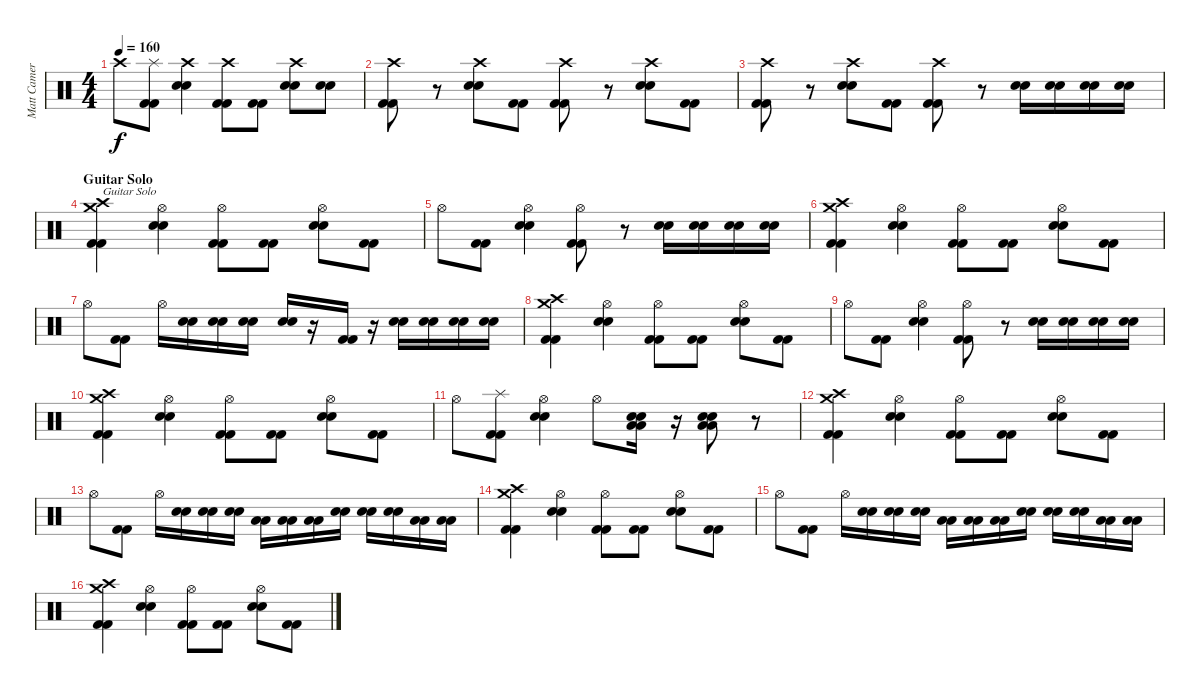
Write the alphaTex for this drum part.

\track ("Matt Cameron" "Matt Camer") {instrument percussion}
\staff {score}
\articulation defaults
\ts (4 4)
\tempo 160
\clef neutral
\ks c "Crash high (hit)".8{dy f}
("Kick (hit) 2" "Kick (hit) 2" "Splash (hit)").8 ("Electric Snare (hit)" "Electric Snare (hit)" "Crash high (hit)").4 ("Kick (hit) 2" "Kick (hit) 2" "Crash high (hit)").8 ("Kick (hit) 2" "Kick (hit) 2").8 ("Electric Snare (hit)" "Electric Snare (hit)" "Crash high (hit)").8 ("Electric Snare (hit)" "Electric Snare (hit)").8 |
("Kick (hit) 2" "Kick (hit) 2" "Crash high (hit)").8 r.8 ("Electric Snare (hit)" "Electric Snare (hit)" "Crash high (hit)").8 ("Kick (hit) 2" "Kick (hit) 2").8 ("Kick (hit) 2" "Kick (hit) 2" "Crash high (hit)").8 r.8 ("Electric Snare (hit)" "Electric Snare (hit)" "Crash high (hit)").8 ("Kick (hit) 2" "Kick (hit) 2").8 |
("Kick (hit) 2" "Kick (hit) 2" "Crash high (hit)").8 r.8 ("Electric Snare (hit)" "Electric Snare (hit)" "Crash high (hit)").8 ("Kick (hit) 2" "Kick (hit) 2").8 ("Kick (hit) 2" "Kick (hit) 2" "Crash high (hit)").8 r.8 ("Electric Snare (hit)" "Electric Snare (hit)").16 ("Electric Snare (hit)" "Electric Snare (hit)").16 ("Electric Snare (hit)" "Electric Snare (hit)").16 ("Electric Snare (hit)" "Electric Snare (hit)").16 |
\section ("" "Guitar Solo")
("Crash medium (hit)" "Kick (hit) 2" "Kick (hit) 2" "Crash high (hit)").4{txt "Guitar Solo"} ("Electric Snare (hit)" "Electric Snare (hit)" "Hi-Hat (open)").4 ("Kick (hit) 2" "Kick (hit) 2" "Hi-Hat (open)").8 ("Kick (hit) 2" "Kick (hit) 2").8 ("Electric Snare (hit)" "Electric Snare (hit)" "Hi-Hat (open)").8 ("Kick (hit) 2" "Kick (hit) 2").8 |
"Hi-Hat (open)".8 ("Kick (hit) 2" "Kick (hit) 2").8 ("Electric Snare (hit)" "Electric Snare (hit)" "Hi-Hat (open)").4 ("Kick (hit) 2" "Kick (hit) 2" "Hi-Hat (open)").8 r.8 ("Electric Snare (hit)" "Electric Snare (hit)").16 ("Electric Snare (hit)" "Electric Snare (hit)").16 ("Electric Snare (hit)" "Electric Snare (hit)").16 ("Electric Snare (hit)" "Electric Snare (hit)").16 |
("Crash medium (hit)" "Kick (hit) 2" "Kick (hit) 2" "Crash high (hit)").4 ("Electric Snare (hit)" "Electric Snare (hit)" "Hi-Hat (open)").4 ("Kick (hit) 2" "Kick (hit) 2" "Hi-Hat (open)").8 ("Kick (hit) 2" "Kick (hit) 2").8 ("Electric Snare (hit)" "Electric Snare (hit)" "Hi-Hat (open)").8 ("Kick (hit) 2" "Kick (hit) 2").8 |
"Hi-Hat (open)".8 ("Kick (hit) 2" "Kick (hit) 2").8 "Hi-Hat (open)".16 ("Electric Snare (hit)" "Electric Snare (hit)").16 ("Electric Snare (hit)" "Electric Snare (hit)").16 ("Electric Snare (hit)" "Electric Snare (hit)").16 ("Electric Snare (hit)" "Electric Snare (hit)").16 r.16 ("Kick (hit) 2" "Kick (hit) 2").16 r.16 ("Electric Snare (hit)" "Electric Snare (hit)").16 ("Electric Snare (hit)" "Electric Snare (hit)").16 ("Electric Snare (hit)" "Electric Snare (hit)").16 ("Electric Snare (hit)" "Electric Snare (hit)").16 |
("Crash medium (hit)" "Kick (hit) 2" "Kick (hit) 2" "Crash high (hit)").4 ("Electric Snare (hit)" "Electric Snare (hit)" "Hi-Hat (open)").4 ("Kick (hit) 2" "Kick (hit) 2" "Hi-Hat (open)").8 ("Kick (hit) 2" "Kick (hit) 2").8 ("Electric Snare (hit)" "Electric Snare (hit)" "Hi-Hat (open)").8 ("Kick (hit) 2" "Kick (hit) 2").8 |
"Hi-Hat (open)".8 ("Kick (hit) 2" "Kick (hit) 2").8 ("Electric Snare (hit)" "Electric Snare (hit)" "Hi-Hat (open)").4 ("Kick (hit) 2" "Kick (hit) 2" "Hi-Hat (open)").8 r.8 ("Electric Snare (hit)" "Electric Snare (hit)").16 ("Electric Snare (hit)" "Electric Snare (hit)").16 ("Electric Snare (hit)" "Electric Snare (hit)").16 ("Electric Snare (hit)" "Electric Snare (hit)").16 |
("Crash medium (hit)" "Kick (hit) 2" "Kick (hit) 2" "Crash high (hit)").4 ("Electric Snare (hit)" "Electric Snare (hit)" "Hi-Hat (open)").4 ("Kick (hit) 2" "Kick (hit) 2" "Hi-Hat (open)").8 ("Kick (hit) 2" "Kick (hit) 2").8 ("Electric Snare (hit)" "Electric Snare (hit)" "Hi-Hat (open)").8 ("Kick (hit) 2" "Kick (hit) 2").8 |
"Hi-Hat (open)".8 ("Kick (hit) 2" "Kick (hit) 2" "Splash (hit)").8 ("Electric Snare (hit)" "Electric Snare (hit)" "Hi-Hat (open)").4 "Hi-Hat (open)".8 ("Low Tom (hit)" "Low Tom (hit)" "Electric Snare (hit)" "Electric Snare (hit)").16 r.16 ("Low Tom (hit)" "Low Tom (hit)" "Electric Snare (hit)" "Electric Snare (hit)").8 r.8 |
("Crash medium (hit)" "Kick (hit) 2" "Kick (hit) 2" "Crash high (hit)").4 ("Electric Snare (hit)" "Electric Snare (hit)" "Hi-Hat (open)").4 ("Kick (hit) 2" "Kick (hit) 2" "Hi-Hat (open)").8 ("Kick (hit) 2" "Kick (hit) 2").8 ("Electric Snare (hit)" "Electric Snare (hit)" "Hi-Hat (open)").8 ("Kick (hit) 2" "Kick (hit) 2").8 |
"Hi-Hat (open)".8 ("Kick (hit) 2" "Kick (hit) 2").8 "Hi-Hat (open)".16 ("Electric Snare (hit)" "Electric Snare (hit)").16 ("Electric Snare (hit)" "Electric Snare (hit)").16 ("Electric Snare (hit)" "Electric Snare (hit)").16 ("Low Tom (hit)" "Low Tom (hit)").16 ("Low Tom (hit)" "Low Tom (hit)").16 ("Low Tom (hit)" "Low Tom (hit)").16 ("Electric Snare (hit)" "Electric Snare (hit)").16 ("Electric Snare (hit)" "Electric Snare (hit)").16 ("Electric Snare (hit)" "Electric Snare (hit)").16 ("Low Tom (hit)" "Low Tom (hit)").16 ("Low Tom (hit)" "Low Tom (hit)").16 |
("Crash medium (hit)" "Kick (hit) 2" "Kick (hit) 2" "Crash high (hit)").4 ("Electric Snare (hit)" "Electric Snare (hit)" "Hi-Hat (open)").4 ("Kick (hit) 2" "Kick (hit) 2" "Hi-Hat (open)").8 ("Kick (hit) 2" "Kick (hit) 2").8 ("Electric Snare (hit)" "Electric Snare (hit)" "Hi-Hat (open)").8 ("Kick (hit) 2" "Kick (hit) 2").8 |
"Hi-Hat (open)".8 ("Kick (hit) 2" "Kick (hit) 2").8 "Hi-Hat (open)".16 ("Electric Snare (hit)" "Electric Snare (hit)").16 ("Electric Snare (hit)" "Electric Snare (hit)").16 ("Electric Snare (hit)" "Electric Snare (hit)").16 ("Low Tom (hit)" "Low Tom (hit)").16 ("Low Tom (hit)" "Low Tom (hit)").16 ("Low Tom (hit)" "Low Tom (hit)").16 ("Electric Snare (hit)" "Electric Snare (hit)").16 ("Electric Snare (hit)" "Electric Snare (hit)").16 ("Electric Snare (hit)" "Electric Snare (hit)").16 ("Low Tom (hit)" "Low Tom (hit)").16 ("Low Tom (hit)" "Low Tom (hit)").16 |
("Crash medium (hit)" "Kick (hit) 2" "Kick (hit) 2" "Crash high (hit)").4 ("Electric Snare (hit)" "Electric Snare (hit)" "Hi-Hat (open)").4 ("Kick (hit) 2" "Kick (hit) 2" "Hi-Hat (open)").8 ("Kick (hit) 2" "Kick (hit) 2").8 ("Electric Snare (hit)" "Electric Snare (hit)" "Hi-Hat (open)").8 ("Kick (hit) 2" "Kick (hit) 2").8
